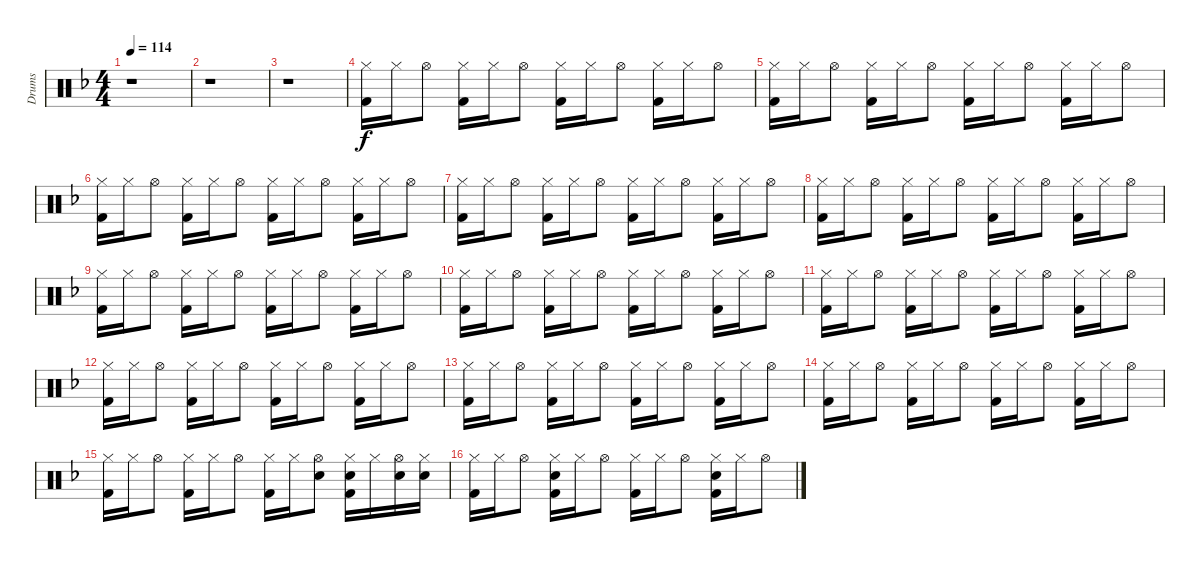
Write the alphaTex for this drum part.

\track ("Drums" "Drums") {instrument percussion}
\staff {score}
\articulation defaults
\ts (4 4)
\tempo 114
\clef neutral
\ks f
r.1{dy f} |
r.1 |
r.1 |
("Hi-Hat (closed)" "Kick (hit) 2").16 "Hi-Hat (closed)".16 "Hi-Hat (open)".8 ("Hi-Hat (closed)" "Kick (hit) 2").16 "Hi-Hat (closed)".16 "Hi-Hat (open)".8 ("Hi-Hat (closed)" "Kick (hit) 2").16 "Hi-Hat (closed)".16 "Hi-Hat (open)".8 ("Hi-Hat (closed)" "Kick (hit) 2").16 "Hi-Hat (closed)".16 "Hi-Hat (open)".8 |
("Hi-Hat (closed)" "Kick (hit) 2").16 "Hi-Hat (closed)".16 "Hi-Hat (open)".8 ("Hi-Hat (closed)" "Kick (hit) 2").16 "Hi-Hat (closed)".16 "Hi-Hat (open)".8 ("Hi-Hat (closed)" "Kick (hit) 2").16 "Hi-Hat (closed)".16 "Hi-Hat (open)".8 ("Hi-Hat (closed)" "Kick (hit) 2").16 "Hi-Hat (closed)".16 "Hi-Hat (open)".8 |
("Hi-Hat (closed)" "Kick (hit) 2").16 "Hi-Hat (closed)".16 "Hi-Hat (open)".8 ("Hi-Hat (closed)" "Kick (hit) 2").16 "Hi-Hat (closed)".16 "Hi-Hat (open)".8 ("Hi-Hat (closed)" "Kick (hit) 2").16 "Hi-Hat (closed)".16 "Hi-Hat (open)".8 ("Hi-Hat (closed)" "Kick (hit) 2").16 "Hi-Hat (closed)".16 "Hi-Hat (open)".8 |
("Hi-Hat (closed)" "Kick (hit) 2").16 "Hi-Hat (closed)".16 "Hi-Hat (open)".8 ("Hi-Hat (closed)" "Kick (hit) 2").16 "Hi-Hat (closed)".16 "Hi-Hat (open)".8 ("Hi-Hat (closed)" "Kick (hit) 2").16 "Hi-Hat (closed)".16 "Hi-Hat (open)".8 ("Hi-Hat (closed)" "Kick (hit) 2").16 "Hi-Hat (closed)".16 "Hi-Hat (open)".8 |
("Hi-Hat (closed)" "Kick (hit) 2").16 "Hi-Hat (closed)".16 "Hi-Hat (open)".8 ("Hi-Hat (closed)" "Kick (hit) 2").16 "Hi-Hat (closed)".16 "Hi-Hat (open)".8 ("Hi-Hat (closed)" "Kick (hit) 2").16 "Hi-Hat (closed)".16 "Hi-Hat (open)".8 ("Hi-Hat (closed)" "Kick (hit) 2").16 "Hi-Hat (closed)".16 "Hi-Hat (open)".8 |
("Hi-Hat (closed)" "Kick (hit) 2").16 "Hi-Hat (closed)".16 "Hi-Hat (open)".8 ("Hi-Hat (closed)" "Kick (hit) 2").16 "Hi-Hat (closed)".16 "Hi-Hat (open)".8 ("Hi-Hat (closed)" "Kick (hit) 2").16 "Hi-Hat (closed)".16 "Hi-Hat (open)".8 ("Hi-Hat (closed)" "Kick (hit) 2").16 "Hi-Hat (closed)".16 "Hi-Hat (open)".8 |
("Hi-Hat (closed)" "Kick (hit) 2").16 "Hi-Hat (closed)".16 "Hi-Hat (open)".8 ("Hi-Hat (closed)" "Kick (hit) 2").16 "Hi-Hat (closed)".16 "Hi-Hat (open)".8 ("Hi-Hat (closed)" "Kick (hit) 2").16 "Hi-Hat (closed)".16 "Hi-Hat (open)".8 ("Hi-Hat (closed)" "Kick (hit) 2").16 "Hi-Hat (closed)".16 "Hi-Hat (open)".8 |
("Hi-Hat (closed)" "Kick (hit) 2").16 "Hi-Hat (closed)".16 "Hi-Hat (open)".8 ("Hi-Hat (closed)" "Kick (hit) 2").16 "Hi-Hat (closed)".16 "Hi-Hat (open)".8 ("Hi-Hat (closed)" "Kick (hit) 2").16 "Hi-Hat (closed)".16 "Hi-Hat (open)".8 ("Hi-Hat (closed)" "Kick (hit) 2").16 "Hi-Hat (closed)".16 "Hi-Hat (open)".8 |
("Hi-Hat (closed)" "Kick (hit) 2").16 "Hi-Hat (closed)".16 "Hi-Hat (open)".8 ("Hi-Hat (closed)" "Kick (hit) 2").16 "Hi-Hat (closed)".16 "Hi-Hat (open)".8 ("Hi-Hat (closed)" "Kick (hit) 2").16 "Hi-Hat (closed)".16 "Hi-Hat (open)".8 ("Hi-Hat (closed)" "Kick (hit) 2").16 "Hi-Hat (closed)".16 "Hi-Hat (open)".8 |
("Hi-Hat (closed)" "Kick (hit) 2").16 "Hi-Hat (closed)".16 "Hi-Hat (open)".8 ("Hi-Hat (closed)" "Kick (hit) 2").16 "Hi-Hat (closed)".16 "Hi-Hat (open)".8 ("Hi-Hat (closed)" "Kick (hit) 2").16 "Hi-Hat (closed)".16 "Hi-Hat (open)".8 ("Hi-Hat (closed)" "Kick (hit) 2").16 "Hi-Hat (closed)".16 "Hi-Hat (open)".8 |
("Hi-Hat (closed)" "Kick (hit) 2").16 "Hi-Hat (closed)".16 "Hi-Hat (open)".8 ("Hi-Hat (closed)" "Kick (hit) 2").16 "Hi-Hat (closed)".16 "Hi-Hat (open)".8 ("Hi-Hat (closed)" "Kick (hit) 2").16 "Hi-Hat (closed)".16 "Hi-Hat (open)".8 ("Hi-Hat (closed)" "Kick (hit) 2").16 "Hi-Hat (closed)".16 "Hi-Hat (open)".8 |
("Hi-Hat (closed)" "Kick (hit) 2").16 "Hi-Hat (closed)".16 "Hi-Hat (open)".8 ("Hi-Hat (closed)" "Kick (hit) 2").16 "Hi-Hat (closed)".16 "Hi-Hat (open)".8 ("Hi-Hat (closed)" "Kick (hit) 2").16 "Hi-Hat (closed)".16 ("Hi-Hat (open)" "Electric Snare (hit)").8 ("Hi-Hat (closed)" "Electric Snare (hit)" "Kick (hit) 2").16 "Hi-Hat (closed)".16 ("Hi-Hat (open)" "Electric Snare (hit)").16 ("Hi-Hat (closed)" "Electric Snare (hit)").16 |
("Hi-Hat (closed)" "Kick (hit) 2").16 "Hi-Hat (closed)".16 "Hi-Hat (open)".8 ("Hi-Hat (closed)" "Electric Snare (hit)" "Kick (hit) 2").16 "Hi-Hat (closed)".16 "Hi-Hat (open)".8 ("Hi-Hat (closed)" "Kick (hit) 2").16 "Hi-Hat (closed)".16 "Hi-Hat (open)".8 ("Hi-Hat (closed)" "Electric Snare (hit)" "Kick (hit) 2").16 "Hi-Hat (closed)".16 "Hi-Hat (open)".8
